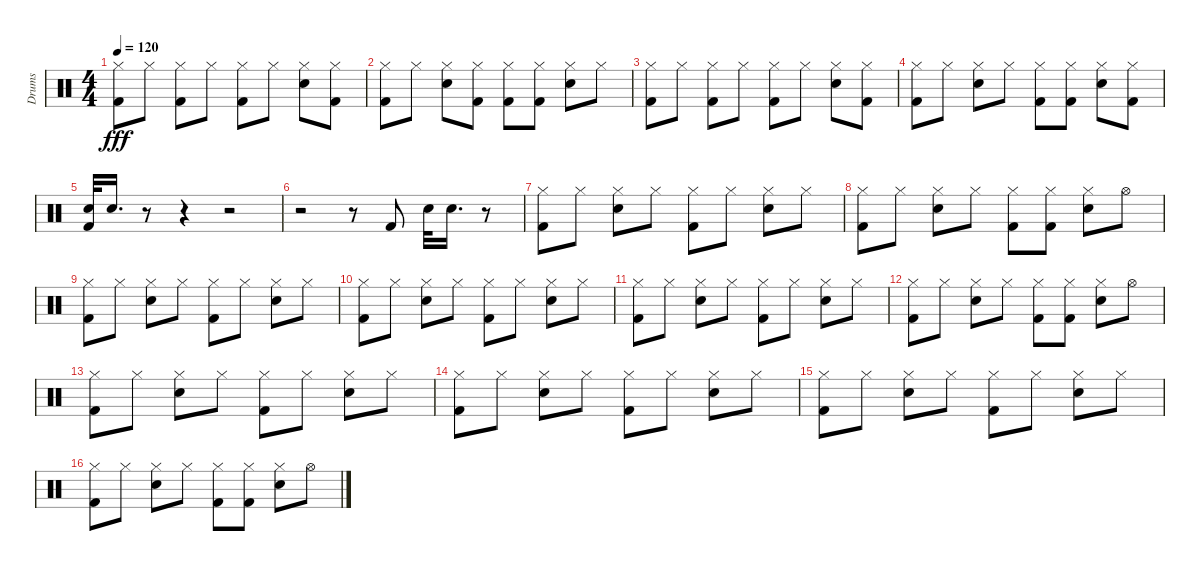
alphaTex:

\track ("Drums" "Drums") {instrument percussion}
\staff {score}
\articulation defaults
\ts (4 4)
\tempo 120
\clef neutral
\ks c
("Hi-Hat (closed)" "Kick (hit) 2").8{dy fff} "Hi-Hat (closed)".8 ("Hi-Hat (closed)" "Kick (hit) 2").8 "Hi-Hat (closed)".8 ("Hi-Hat (closed)" "Kick (hit) 2").8 "Hi-Hat (closed)".8 ("Hi-Hat (closed)" "Snare (hit) 2").8 ("Hi-Hat (closed)" "Kick (hit) 2").8 |
("Hi-Hat (closed)" "Kick (hit) 2").8 "Hi-Hat (closed)".8 ("Hi-Hat (closed)" "Snare (hit) 2").8 ("Hi-Hat (closed)" "Kick (hit) 2").8 ("Hi-Hat (closed)" "Kick (hit) 2").8 ("Hi-Hat (closed)" "Kick (hit) 2").8 ("Hi-Hat (closed)" "Snare (hit) 2").8 "Hi-Hat (closed)".8 |
("Hi-Hat (closed)" "Kick (hit) 2").8 "Hi-Hat (closed)".8 ("Hi-Hat (closed)" "Kick (hit) 2").8 "Hi-Hat (closed)".8 ("Hi-Hat (closed)" "Kick (hit) 2").8 "Hi-Hat (closed)".8 ("Hi-Hat (closed)" "Snare (hit) 2").8 ("Hi-Hat (closed)" "Kick (hit) 2").8 |
("Hi-Hat (closed)" "Kick (hit) 2").8 "Hi-Hat (closed)".8 ("Hi-Hat (closed)" "Snare (hit) 2").8 "Hi-Hat (closed)".8 ("Hi-Hat (closed)" "Kick (hit) 2").8 ("Hi-Hat (closed)" "Kick (hit) 2").8 ("Hi-Hat (closed)" "Snare (hit) 2").8 ("Hi-Hat (closed)" "Kick (hit) 2").8 |
("Snare (hit) 2" "Kick (hit) 2").32 "Snare (hit) 2".16{d} r.8 r.4 r.2 |
r.2 r.8 "Kick (hit) 2".8 "Snare (hit) 2".32 "Snare (hit) 2".16{d} r.8 |
("Hi-Hat (closed)" "Kick (hit) 2").8 "Hi-Hat (closed)".8 ("Hi-Hat (closed)" "Snare (hit) 2").8 "Hi-Hat (closed)".8 ("Hi-Hat (closed)" "Kick (hit) 2").8 "Hi-Hat (closed)".8 ("Hi-Hat (closed)" "Snare (hit) 2").8 "Hi-Hat (closed)".8 |
("Hi-Hat (closed)" "Kick (hit) 2").8 "Hi-Hat (closed)".8 ("Hi-Hat (closed)" "Snare (hit) 2").8 "Hi-Hat (closed)".8 ("Hi-Hat (closed)" "Kick (hit) 2").8 ("Hi-Hat (closed)" "Kick (hit) 2").8 ("Hi-Hat (closed)" "Snare (hit) 2").8 "Hi-Hat (open)".8 |
("Hi-Hat (closed)" "Kick (hit) 2").8 "Hi-Hat (closed)".8 ("Hi-Hat (closed)" "Snare (hit) 2").8 "Hi-Hat (closed)".8 ("Hi-Hat (closed)" "Kick (hit) 2").8 "Hi-Hat (closed)".8 ("Hi-Hat (closed)" "Snare (hit) 2").8 "Hi-Hat (closed)".8 |
("Hi-Hat (closed)" "Kick (hit) 2").8 "Hi-Hat (closed)".8 ("Hi-Hat (closed)" "Snare (hit) 2").8 "Hi-Hat (closed)".8 ("Hi-Hat (closed)" "Kick (hit) 2").8 "Hi-Hat (closed)".8 ("Hi-Hat (closed)" "Snare (hit) 2").8 "Hi-Hat (closed)".8 |
("Hi-Hat (closed)" "Kick (hit) 2").8 "Hi-Hat (closed)".8 ("Hi-Hat (closed)" "Snare (hit) 2").8 "Hi-Hat (closed)".8 ("Hi-Hat (closed)" "Kick (hit) 2").8 "Hi-Hat (closed)".8 ("Hi-Hat (closed)" "Snare (hit) 2").8 "Hi-Hat (closed)".8 |
("Hi-Hat (closed)" "Kick (hit) 2").8 "Hi-Hat (closed)".8 ("Hi-Hat (closed)" "Snare (hit) 2").8 "Hi-Hat (closed)".8 ("Hi-Hat (closed)" "Kick (hit) 2").8 ("Hi-Hat (closed)" "Kick (hit) 2").8 ("Hi-Hat (closed)" "Snare (hit) 2").8 "Hi-Hat (open)".8 |
("Hi-Hat (closed)" "Kick (hit) 2").8 "Hi-Hat (closed)".8 ("Hi-Hat (closed)" "Snare (hit) 2").8 "Hi-Hat (closed)".8 ("Hi-Hat (closed)" "Kick (hit) 2").8 "Hi-Hat (closed)".8 ("Hi-Hat (closed)" "Snare (hit) 2").8 "Hi-Hat (closed)".8 |
("Hi-Hat (closed)" "Kick (hit) 2").8 "Hi-Hat (closed)".8 ("Hi-Hat (closed)" "Snare (hit) 2").8 "Hi-Hat (closed)".8 ("Hi-Hat (closed)" "Kick (hit) 2").8 "Hi-Hat (closed)".8 ("Hi-Hat (closed)" "Snare (hit) 2").8 "Hi-Hat (closed)".8 |
("Hi-Hat (closed)" "Kick (hit) 2").8 "Hi-Hat (closed)".8 ("Hi-Hat (closed)" "Snare (hit) 2").8 "Hi-Hat (closed)".8 ("Hi-Hat (closed)" "Kick (hit) 2").8 "Hi-Hat (closed)".8 ("Hi-Hat (closed)" "Snare (hit) 2").8 "Hi-Hat (closed)".8 |
("Hi-Hat (closed)" "Kick (hit) 2").8 "Hi-Hat (closed)".8 ("Hi-Hat (closed)" "Snare (hit) 2").8 "Hi-Hat (closed)".8 ("Hi-Hat (closed)" "Kick (hit) 2").8 ("Hi-Hat (closed)" "Kick (hit) 2").8 ("Hi-Hat (closed)" "Snare (hit) 2").8 "Hi-Hat (open)".8
